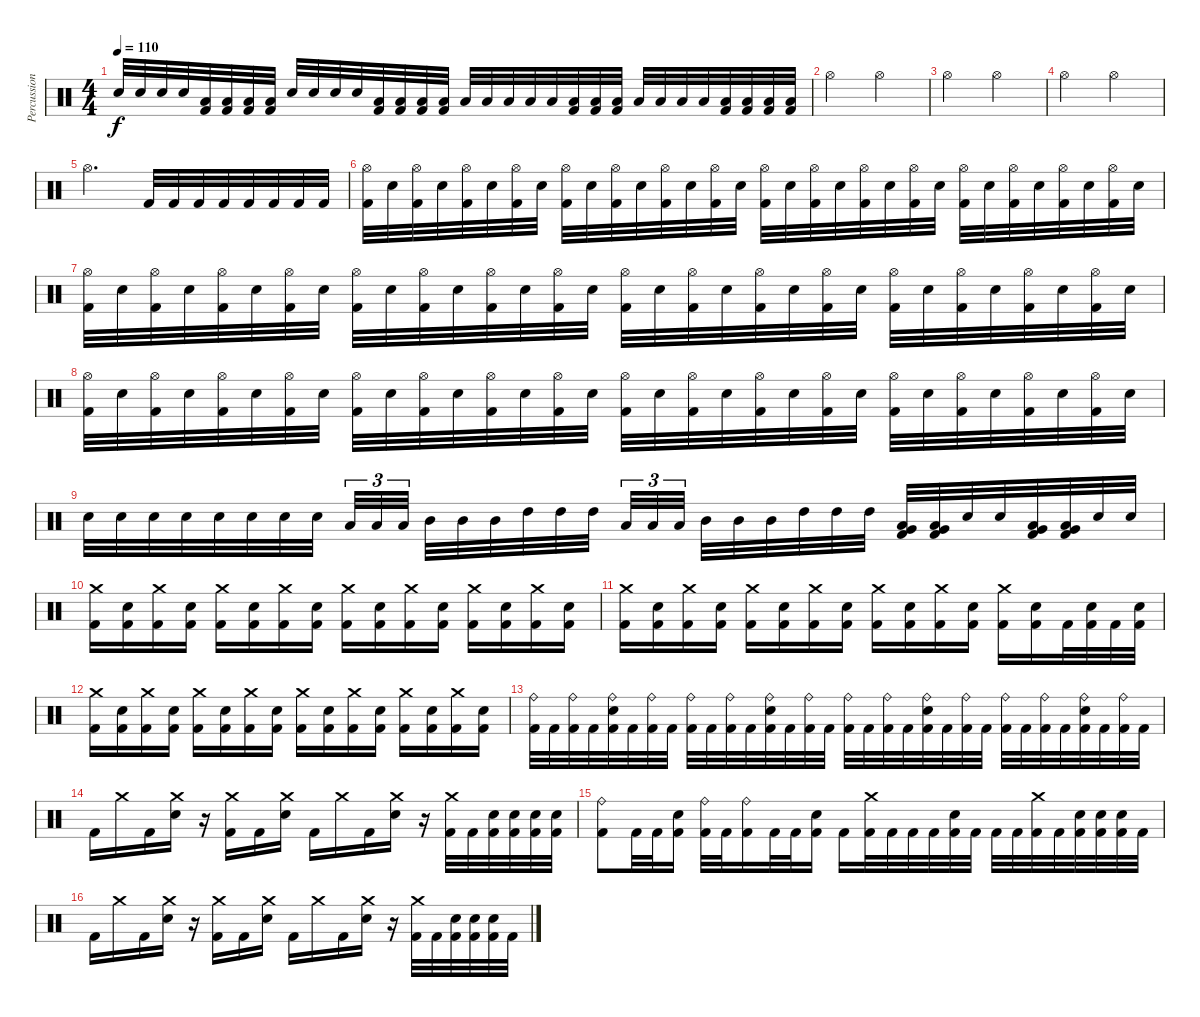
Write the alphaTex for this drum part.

\track ("Percussion" "Percussion") {instrument percussion}
\staff {score}
\articulation defaults
\ts (4 4)
\tempo 110
\clef neutral
\ks c "Electric Snare (hit)".32{dy f} "Electric Snare (hit)".32 "Electric Snare (hit)".32 "Electric Snare (hit)".32
("Low Floor Tom (hit)" "Kick (hit) 2").32 ("Low Floor Tom (hit)" "Kick (hit) 2").32 ("Low Floor Tom (hit)" "Kick (hit) 2").32 ("Low Floor Tom (hit)" "Kick (hit) 2").32 "Electric Snare (hit)".32 "Electric Snare (hit)".32 "Electric Snare (hit)".32 "Electric Snare (hit)".32 ("Low Floor Tom (hit)" "Kick (hit) 2").32 ("Low Floor Tom (hit)" "Kick (hit) 2").32 ("Low Floor Tom (hit)" "Kick (hit) 2").32 ("Low Floor Tom (hit)" "Kick (hit) 2").32 "Low Tom (hit)".32 "Low Tom (hit)".32 "Low Tom (hit)".32 "Low Tom (hit)".32 "Low Tom (hit)".32 ("Low Floor Tom (hit)" "Kick (hit) 2").32 ("Low Floor Tom (hit)" "Kick (hit) 2").32 ("Low Floor Tom (hit)" "Kick (hit) 2").32 "Low Tom (hit)".32 "Low Tom (hit)".32 "Low Tom (hit)".32 "Low Tom (hit)".32 ("Low Floor Tom (hit)" "Kick (hit) 2").32 ("Low Floor Tom (hit)" "Kick (hit) 2").32 ("Low Floor Tom (hit)" "Kick (hit) 2").32 ("Low Floor Tom (hit)" "Kick (hit) 2").32 |
"Hi-Hat (open)".2 "Hi-Hat (open)".2 |
"Hi-Hat (open)".2 "Hi-Hat (open)".2 |
"Hi-Hat (open)".2 "Hi-Hat (open)".2 |
"Hi-Hat (open)".2{d} "Kick (hit) 2".32 "Kick (hit) 2".32 "Kick (hit) 2".32 "Kick (hit) 2".32 "Kick (hit) 2".32 "Kick (hit) 2".32 "Kick (hit) 2".32 "Kick (hit) 2".32 |
("Hi-Hat (open)" "Kick (hit) 2").32 "Electric Snare (hit)".32 ("Hi-Hat (open)" "Kick (hit) 2").32 "Electric Snare (hit)".32 ("Hi-Hat (open)" "Kick (hit) 2").32 "Electric Snare (hit)".32 ("Hi-Hat (open)" "Kick (hit) 2").32 "Electric Snare (hit)".32 ("Hi-Hat (open)" "Kick (hit) 2").32 "Electric Snare (hit)".32 ("Hi-Hat (open)" "Kick (hit) 2").32 "Electric Snare (hit)".32 ("Hi-Hat (open)" "Kick (hit) 2").32 "Electric Snare (hit)".32 ("Hi-Hat (open)" "Kick (hit) 2").32 "Electric Snare (hit)".32 ("Hi-Hat (open)" "Kick (hit) 2").32 "Electric Snare (hit)".32 ("Hi-Hat (open)" "Kick (hit) 2").32 "Electric Snare (hit)".32 ("Hi-Hat (open)" "Kick (hit) 2").32 "Electric Snare (hit)".32 ("Hi-Hat (open)" "Kick (hit) 2").32 "Electric Snare (hit)".32 ("Hi-Hat (open)" "Kick (hit) 2").32 "Electric Snare (hit)".32 ("Hi-Hat (open)" "Kick (hit) 2").32 "Electric Snare (hit)".32 ("Hi-Hat (open)" "Kick (hit) 2").32 "Electric Snare (hit)".32 ("Hi-Hat (open)" "Kick (hit) 2").32 "Electric Snare (hit)".32 |
("Hi-Hat (open)" "Kick (hit) 2").32 "Electric Snare (hit)".32 ("Hi-Hat (open)" "Kick (hit) 2").32 "Electric Snare (hit)".32 ("Hi-Hat (open)" "Kick (hit) 2").32 "Electric Snare (hit)".32 ("Hi-Hat (open)" "Kick (hit) 2").32 "Electric Snare (hit)".32 ("Hi-Hat (open)" "Kick (hit) 2").32 "Electric Snare (hit)".32 ("Hi-Hat (open)" "Kick (hit) 2").32 "Electric Snare (hit)".32 ("Hi-Hat (open)" "Kick (hit) 2").32 "Electric Snare (hit)".32 ("Hi-Hat (open)" "Kick (hit) 2").32 "Electric Snare (hit)".32 ("Hi-Hat (open)" "Kick (hit) 2").32 "Electric Snare (hit)".32 ("Hi-Hat (open)" "Kick (hit) 2").32 "Electric Snare (hit)".32 ("Hi-Hat (open)" "Kick (hit) 2").32 "Electric Snare (hit)".32 ("Hi-Hat (open)" "Kick (hit) 2").32 "Electric Snare (hit)".32 ("Hi-Hat (open)" "Kick (hit) 2").32 "Electric Snare (hit)".32 ("Hi-Hat (open)" "Kick (hit) 2").32 "Electric Snare (hit)".32 ("Hi-Hat (open)" "Kick (hit) 2").32 "Electric Snare (hit)".32 ("Hi-Hat (open)" "Kick (hit) 2").32 "Electric Snare (hit)".32 |
("Hi-Hat (open)" "Kick (hit) 2").32 "Electric Snare (hit)".32 ("Hi-Hat (open)" "Kick (hit) 2").32 "Electric Snare (hit)".32 ("Hi-Hat (open)" "Kick (hit) 2").32 "Electric Snare (hit)".32 ("Hi-Hat (open)" "Kick (hit) 2").32 "Electric Snare (hit)".32 ("Hi-Hat (open)" "Kick (hit) 2").32 "Electric Snare (hit)".32 ("Hi-Hat (open)" "Kick (hit) 2").32 "Electric Snare (hit)".32 ("Hi-Hat (open)" "Kick (hit) 2").32 "Electric Snare (hit)".32 ("Hi-Hat (open)" "Kick (hit) 2").32 "Electric Snare (hit)".32 ("Hi-Hat (open)" "Kick (hit) 2").32 "Electric Snare (hit)".32 ("Hi-Hat (open)" "Kick (hit) 2").32 "Electric Snare (hit)".32 ("Hi-Hat (open)" "Kick (hit) 2").32 "Electric Snare (hit)".32 ("Hi-Hat (open)" "Kick (hit) 2").32 "Electric Snare (hit)".32 ("Hi-Hat (open)" "Kick (hit) 2").32 "Electric Snare (hit)".32 ("Hi-Hat (open)" "Kick (hit) 2").32 "Electric Snare (hit)".32 ("Hi-Hat (open)" "Kick (hit) 2").32 "Electric Snare (hit)".32 ("Hi-Hat (open)" "Kick (hit) 2").32 "Electric Snare (hit)".32 |
"Electric Snare (hit)".32 "Electric Snare (hit)".32 "Electric Snare (hit)".32 "Electric Snare (hit)".32 "Electric Snare (hit)".32 "Electric Snare (hit)".32 "Electric Snare (hit)".32 "Electric Snare (hit)".32 "Low Tom (hit)".32{tu (3 2)} "Low Tom (hit)".32{tu (3 2)} "Low Tom (hit)".32{tu (3 2) beam splitsecondary} "Mid Tom (hit)".32 "Mid Tom (hit)".32 "Mid Tom (hit)".32 "High Tom (hit)".32 "High Tom (hit)".32 "High Tom (hit)".32 "Low Tom (hit)".32{tu (3 2)} "Low Tom (hit)".32{tu (3 2)} "Low Tom (hit)".32{tu (3 2) beam splitsecondary} "Mid Tom (hit)".32 "Mid Tom (hit)".32 "Mid Tom (hit)".32 "High Tom (hit)".32 "High Tom (hit)".32 "High Tom (hit)".32 ("Low Floor Tom (hit)" "Very Low Tom (hit)" "Kick (hit) 2").32 ("Low Floor Tom (hit)" "Very Low Tom (hit)" "Kick (hit) 2").32 "Electric Snare (hit)".32 "Electric Snare (hit)".32 ("Low Floor Tom (hit)" "Very Low Tom (hit)" "Kick (hit) 2").32 ("Low Floor Tom (hit)" "Very Low Tom (hit)" "Kick (hit) 2").32 "Electric Snare (hit)".32 "Electric Snare (hit)".32 |
("Crash medium (hit)" "Kick (hit) 2").16 ("Electric Snare (hit)" "Kick (hit) 2").16 ("Crash medium (hit)" "Kick (hit) 2").16 ("Electric Snare (hit)" "Kick (hit) 2").16 ("Crash medium (hit)" "Kick (hit) 2").16 ("Electric Snare (hit)" "Kick (hit) 2").16 ("Crash medium (hit)" "Kick (hit) 2").16 ("Electric Snare (hit)" "Kick (hit) 2").16 ("Crash medium (hit)" "Kick (hit) 2").16 ("Electric Snare (hit)" "Kick (hit) 2").16 ("Crash medium (hit)" "Kick (hit) 2").16 ("Electric Snare (hit)" "Kick (hit) 2").16 ("Crash medium (hit)" "Kick (hit) 2").16 ("Electric Snare (hit)" "Kick (hit) 2").16 ("Crash medium (hit)" "Kick (hit) 2").16 ("Electric Snare (hit)" "Kick (hit) 2").16 |
("Crash medium (hit)" "Kick (hit) 2").16 ("Electric Snare (hit)" "Kick (hit) 2").16 ("Crash medium (hit)" "Kick (hit) 2").16 ("Electric Snare (hit)" "Kick (hit) 2").16 ("Crash medium (hit)" "Kick (hit) 2").16 ("Electric Snare (hit)" "Kick (hit) 2").16 ("Crash medium (hit)" "Kick (hit) 2").16 ("Electric Snare (hit)" "Kick (hit) 2").16 ("Crash medium (hit)" "Kick (hit) 2").16 ("Electric Snare (hit)" "Kick (hit) 2").16 ("Crash medium (hit)" "Kick (hit) 2").16 ("Electric Snare (hit)" "Kick (hit) 2").16 ("Crash medium (hit)" "Kick (hit) 2").16 ("Electric Snare (hit)" "Kick (hit) 2").16 "Kick (hit) 2".32 ("Electric Snare (hit)" "Kick (hit) 2").32 "Kick (hit) 2".32 ("Electric Snare (hit)" "Kick (hit) 2").32 |
("Crash medium (hit)" "Kick (hit) 2").16 ("Electric Snare (hit)" "Kick (hit) 2").16 ("Crash medium (hit)" "Kick (hit) 2").16 ("Electric Snare (hit)" "Kick (hit) 2").16 ("Crash medium (hit)" "Kick (hit) 2").16 ("Electric Snare (hit)" "Kick (hit) 2").16 ("Crash medium (hit)" "Kick (hit) 2").16 ("Electric Snare (hit)" "Kick (hit) 2").16 ("Crash medium (hit)" "Kick (hit) 2").16 ("Electric Snare (hit)" "Kick (hit) 2").16 ("Crash medium (hit)" "Kick (hit) 2").16 ("Electric Snare (hit)" "Kick (hit) 2").16 ("Crash medium (hit)" "Kick (hit) 2").16 ("Electric Snare (hit)" "Kick (hit) 2").16 ("Crash medium (hit)" "Kick (hit) 2").16 ("Electric Snare (hit)" "Kick (hit) 2").16 |
("Ride (bell)" "Kick (hit) 2").32 "Kick (hit) 2".32 ("Ride (bell)" "Kick (hit) 2").32 "Kick (hit) 2".32 ("Ride (bell)" "Electric Snare (hit)" "Kick (hit) 2").32 "Kick (hit) 2".32 ("Ride (bell)" "Kick (hit) 2").32 "Kick (hit) 2".32 ("Ride (bell)" "Kick (hit) 2").32 "Kick (hit) 2".32 ("Ride (bell)" "Kick (hit) 2").32 "Kick (hit) 2".32 ("Ride (bell)" "Electric Snare (hit)" "Kick (hit) 2").32 "Kick (hit) 2".32 ("Ride (bell)" "Kick (hit) 2").32 "Kick (hit) 2".32 ("Ride (bell)" "Kick (hit) 2").32 "Kick (hit) 2".32 ("Ride (bell)" "Kick (hit) 2").32 "Kick (hit) 2".32 ("Ride (bell)" "Electric Snare (hit)" "Kick (hit) 2").32 "Kick (hit) 2".32 ("Ride (bell)" "Kick (hit) 2").32 "Kick (hit) 2".32 ("Ride (bell)" "Kick (hit) 2").32 "Kick (hit) 2".32 ("Ride (bell)" "Kick (hit) 2").32 "Kick (hit) 2".32 ("Ride (bell)" "Electric Snare (hit)" "Kick (hit) 2").32 "Kick (hit) 2".32 ("Ride (bell)" "Kick (hit) 2").32 "Kick (hit) 2".32 |
"Kick (hit) 2".16 "Crash medium (hit)".16 "Kick (hit) 2".16 ("Crash medium (hit)" "Electric Snare (hit)").16 r.16 ("Crash medium (hit)" "Kick (hit) 2").16 "Kick (hit) 2".16 ("Crash medium (hit)" "Electric Snare (hit)").16 "Kick (hit) 2".16 "Crash medium (hit)".16 "Kick (hit) 2".16 ("Crash medium (hit)" "Electric Snare (hit)").16 r.16 ("Crash medium (hit)" "Kick (hit) 2").32 "Kick (hit) 2".32 ("Electric Snare (hit)" "Kick (hit) 2").32 ("Electric Snare (hit)" "Kick (hit) 2").32 ("Electric Snare (hit)" "Kick (hit) 2").32 ("Electric Snare (hit)" "Kick (hit) 2").32 |
("Ride (bell)" "Kick (hit) 2").8 "Kick (hit) 2".32 "Kick (hit) 2".32 ("Electric Snare (hit)" "Kick (hit) 2").16 ("Ride (bell)" "Kick (hit) 2").32 "Kick (hit) 2".32 ("Ride (bell)" "Kick (hit) 2").16 "Kick (hit) 2".32 "Kick (hit) 2".32 ("Electric Snare (hit)" "Kick (hit) 2").16 "Kick (hit) 2".16 ("Crash medium (hit)" "Kick (hit) 2").32 "Kick (hit) 2".32 "Kick (hit) 2".32 "Kick (hit) 2".32 ("Electric Snare (hit)" "Kick (hit) 2").32 "Kick (hit) 2".32 "Kick (hit) 2".32 "Kick (hit) 2".32 ("Crash medium (hit)" "Kick (hit) 2").32 "Kick (hit) 2".32 ("Electric Snare (hit)" "Kick (hit) 2").32 ("Electric Snare (hit)" "Kick (hit) 2").32 ("Electric Snare (hit)" "Kick (hit) 2").32 "Kick (hit) 2".32 |
"Kick (hit) 2".16 "Crash medium (hit)".16 "Kick (hit) 2".16 ("Crash medium (hit)" "Electric Snare (hit)").16 r.16 ("Crash medium (hit)" "Kick (hit) 2").16 "Kick (hit) 2".16 ("Crash medium (hit)" "Electric Snare (hit)").16 "Kick (hit) 2".16 "Crash medium (hit)".16 "Kick (hit) 2".16 ("Crash medium (hit)" "Electric Snare (hit)").16 r.16 ("Crash medium (hit)" "Kick (hit) 2").32 "Kick (hit) 2".32 ("Electric Snare (hit)" "Kick (hit) 2").32 ("Electric Snare (hit)" "Kick (hit) 2").32 ("Electric Snare (hit)" "Kick (hit) 2").32 "Kick (hit) 2".32
